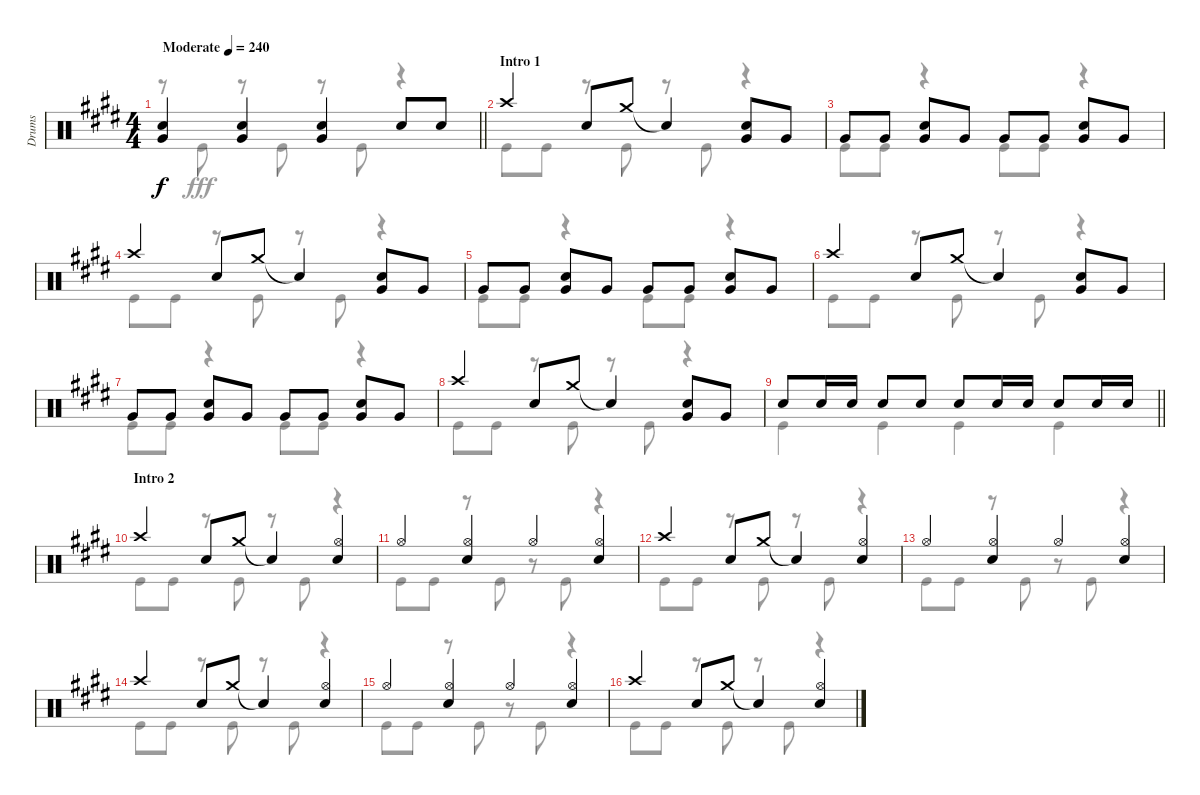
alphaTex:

\track ("Drums" "Drums") {instrument percussion}
\staff {score}
\articulation defaults
\voice
\ts (4 4)
\tempo (240 "Moderate")
\clef neutral
\barLineRight lightlight
\ks e
("Snare (hit) 2" "Very Low Tom (hit)").4{dy f} ("Snare (hit) 2" "Very Low Tom (hit)").4 ("Snare (hit) 2" "Very Low Tom (hit)").4 "Snare (hit) 2".8 "Snare (hit) 2".8 |
\section ("" "Intro 1")
"Crash high (hit)".4 "Snare (hit) 2".8 "Crash medium (hit)".8 "Snare (hit)"{t}.4 ("Snare (hit) 2" "Very Low Tom (hit)").8 "Very Low Tom (hit)".8 |
"Very Low Tom (hit)".8 "Very Low Tom (hit)".8 ("Snare (hit) 2" "Very Low Tom (hit)").8 "Very Low Tom (hit)".8 "Very Low Tom (hit)".8 "Very Low Tom (hit)".8 ("Snare (hit) 2" "Very Low Tom (hit)").8 "Very Low Tom (hit)".8 |
"Crash high (hit)".4 "Snare (hit) 2".8 "Crash medium (hit)".8 "Snare (hit)"{t}.4 ("Snare (hit) 2" "Very Low Tom (hit)").8 "Very Low Tom (hit)".8 |
"Very Low Tom (hit)".8 "Very Low Tom (hit)".8 ("Snare (hit) 2" "Very Low Tom (hit)").8 "Very Low Tom (hit)".8 "Very Low Tom (hit)".8 "Very Low Tom (hit)".8 ("Snare (hit) 2" "Very Low Tom (hit)").8 "Very Low Tom (hit)".8 |
"Crash high (hit)".4 "Snare (hit) 2".8 "Crash medium (hit)".8 "Snare (hit)"{t}.4 ("Snare (hit) 2" "Very Low Tom (hit)").8 "Very Low Tom (hit)".8 |
"Very Low Tom (hit)".8 "Very Low Tom (hit)".8 ("Snare (hit) 2" "Very Low Tom (hit)").8 "Very Low Tom (hit)".8 "Very Low Tom (hit)".8 "Very Low Tom (hit)".8 ("Snare (hit) 2" "Very Low Tom (hit)").8 "Very Low Tom (hit)".8 |
"Crash high (hit)".4 "Snare (hit) 2".8 "Crash medium (hit)".8 "Snare (hit)"{t}.4 ("Snare (hit) 2" "Very Low Tom (hit)").8 "Very Low Tom (hit)".8 |
\barLineRight lightlight "Snare (hit) 2".8 "Snare (hit) 2".16 "Snare (hit) 2".16 "Snare (hit) 2".8 "Snare (hit) 2".8 "Snare (hit) 2".8 "Snare (hit) 2".16 "Snare (hit) 2".16 "Snare (hit) 2".8 "Snare (hit) 2".16 "Snare (hit) 2".16
|
\section ("" "Intro 2")
"Crash high (hit)".4 "Snare (hit) 2".8 "Crash medium (hit)".8 "Snare (hit)"{t}.4 ("Hi-Hat (open)" "Snare (hit) 2").4 |
"Hi-Hat (open)".4 ("Hi-Hat (open)" "Snare (hit) 2").4 "Hi-Hat (open)".4 ("Hi-Hat (open)" "Snare (hit) 2").4 |
"Crash high (hit)".4 "Snare (hit) 2".8 "Crash medium (hit)".8 "Snare (hit)"{t}.4 ("Hi-Hat (open)" "Snare (hit) 2").4 |
"Hi-Hat (open)".4 ("Hi-Hat (open)" "Snare (hit) 2").4 "Hi-Hat (open)".4 ("Hi-Hat (open)" "Snare (hit) 2").4 |
"Crash high (hit)".4 "Snare (hit) 2".8 "Crash medium (hit)".8 "Snare (hit)"{t}.4 ("Hi-Hat (open)" "Snare (hit) 2").4 |
"Hi-Hat (open)".4 ("Hi-Hat (open)" "Snare (hit) 2").4 "Hi-Hat (open)".4 ("Hi-Hat (open)" "Snare (hit) 2").4 |
"Crash high (hit)".4 "Snare (hit) 2".8 "Crash medium (hit)".8 "Snare (hit)"{t}.4 ("Hi-Hat (open)" "Snare (hit) 2").4
\voice
\clef neutral
\ottava regular
\simile none
\barLineRight lightlight
\ks e
r.8{dy fff} "Kick (hit)".8 r.8 "Kick (hit)".8 r.8 "Kick (hit)".8 r.4 |
"Kick (hit)".8 "Kick (hit)".8 r.8 "Kick (hit)".8 r.8 "Kick (hit)".8 r.4 |
"Kick (hit)".8 "Kick (hit)".8 r.4 "Kick (hit)".8 "Kick (hit)".8 r.4 |
"Kick (hit)".8 "Kick (hit)".8 r.8 "Kick (hit)".8 r.8 "Kick (hit)".8 r.4 |
"Kick (hit)".8 "Kick (hit)".8 r.4 "Kick (hit)".8 "Kick (hit)".8 r.4 |
"Kick (hit)".8 "Kick (hit)".8 r.8 "Kick (hit)".8 r.8 "Kick (hit)".8 r.4 |
"Kick (hit)".8 "Kick (hit)".8 r.4 "Kick (hit)".8 "Kick (hit)".8 r.4 |
"Kick (hit)".8 "Kick (hit)".8 r.8 "Kick (hit)".8 r.8 "Kick (hit)".8 r.4 |
\barLineRight lightlight "Kick (hit)".4 "Kick (hit)".4 "Kick (hit)".4 "Kick (hit)".4
|
"Kick (hit)".8 "Kick (hit)".8 r.8 "Kick (hit)".8 r.8 "Kick (hit)".8 r.4 |
"Kick (hit)".8 "Kick (hit)".8 r.8 "Kick (hit)".8 r.8 "Kick (hit)".8 r.4 |
"Kick (hit)".8 "Kick (hit)".8 r.8 "Kick (hit)".8 r.8 "Kick (hit)".8 r.4 |
"Kick (hit)".8 "Kick (hit)".8 r.8 "Kick (hit)".8 r.8 "Kick (hit)".8 r.4 |
"Kick (hit)".8 "Kick (hit)".8 r.8 "Kick (hit)".8 r.8 "Kick (hit)".8 r.4 |
"Kick (hit)".8 "Kick (hit)".8 r.8 "Kick (hit)".8 r.8 "Kick (hit)".8 r.4 |
"Kick (hit)".8 "Kick (hit)".8 r.8 "Kick (hit)".8 r.8 "Kick (hit)".8 r.4
